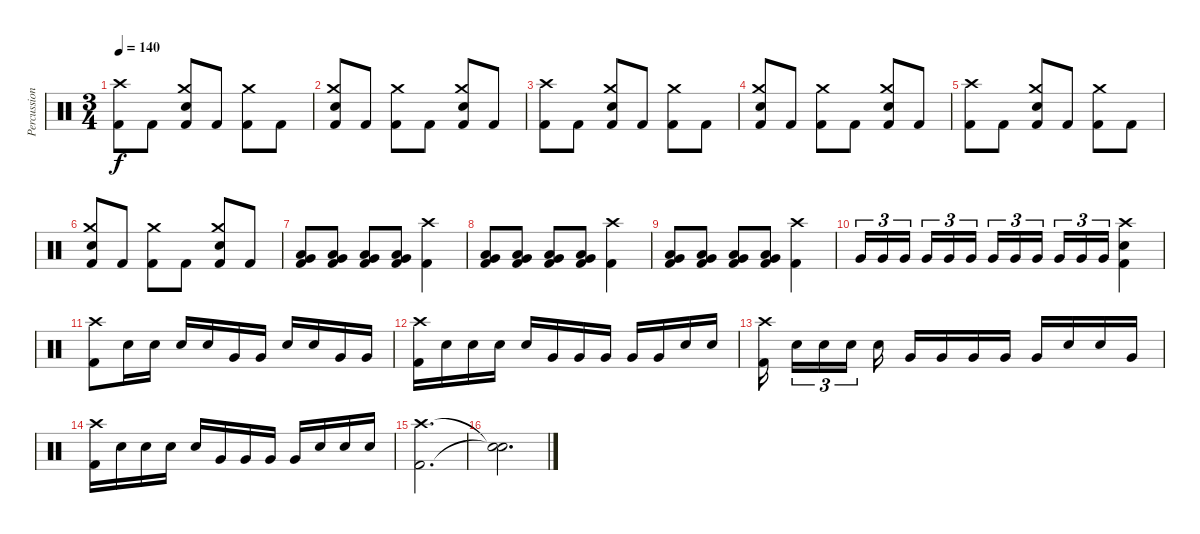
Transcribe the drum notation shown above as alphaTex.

\track ("Percussions" "Percussion") {instrument percussion}
\staff {score}
\articulation defaults
\ts (3 4)
\tempo 140
\clef neutral
\ks c
("Crash high (hit)" "Kick (hit) 2").8{dy f} "Kick (hit) 2".8 ("Crash medium (hit)" "Electric Snare (hit)" "Kick (hit) 2").8 "Kick (hit) 2".8 ("Crash medium (hit)" "Kick (hit) 2").8 "Kick (hit) 2".8 |
("Crash medium (hit)" "Electric Snare (hit)" "Kick (hit) 2").8 "Kick (hit) 2".8 ("Crash medium (hit)" "Kick (hit) 2").8 "Kick (hit) 2".8 ("Crash medium (hit)" "Electric Snare (hit)" "Kick (hit) 2").8 "Kick (hit) 2".8 |
("Crash high (hit)" "Kick (hit) 2").8 "Kick (hit) 2".8 ("Crash medium (hit)" "Electric Snare (hit)" "Kick (hit) 2").8 "Kick (hit) 2".8 ("Crash medium (hit)" "Kick (hit) 2").8 "Kick (hit) 2".8 |
("Crash medium (hit)" "Electric Snare (hit)" "Kick (hit) 2").8 "Kick (hit) 2".8 ("Crash medium (hit)" "Kick (hit) 2").8 "Kick (hit) 2".8 ("Crash medium (hit)" "Electric Snare (hit)" "Kick (hit) 2").8 "Kick (hit) 2".8 |
("Crash high (hit)" "Kick (hit) 2").8 "Kick (hit) 2".8 ("Crash medium (hit)" "Electric Snare (hit)" "Kick (hit) 2").8 "Kick (hit) 2".8 ("Crash medium (hit)" "Kick (hit) 2").8 "Kick (hit) 2".8 |
("Crash medium (hit)" "Electric Snare (hit)" "Kick (hit) 2").8 "Kick (hit) 2".8 ("Crash medium (hit)" "Kick (hit) 2").8 "Kick (hit) 2".8 ("Crash medium (hit)" "Electric Snare (hit)" "Kick (hit) 2").8 "Kick (hit) 2".8 |
("Very Low Tom (hit)" "Low Floor Tom (hit)" "Kick (hit) 2").8 ("Very Low Tom (hit)" "Low Floor Tom (hit)" "Kick (hit) 2").8 ("Very Low Tom (hit)" "Low Floor Tom (hit)" "Kick (hit) 2").8 ("Very Low Tom (hit)" "Low Floor Tom (hit)" "Kick (hit) 2").8 ("Crash high (hit)" "Kick (hit) 2").4 |
("Very Low Tom (hit)" "Low Floor Tom (hit)" "Kick (hit) 2").8 ("Very Low Tom (hit)" "Low Floor Tom (hit)" "Kick (hit) 2").8 ("Very Low Tom (hit)" "Low Floor Tom (hit)" "Kick (hit) 2").8 ("Very Low Tom (hit)" "Low Floor Tom (hit)" "Kick (hit) 2").8 ("Crash high (hit)" "Kick (hit) 2").4 |
("Very Low Tom (hit)" "Low Floor Tom (hit)" "Kick (hit) 2").8 ("Very Low Tom (hit)" "Low Floor Tom (hit)" "Kick (hit) 2").8 ("Very Low Tom (hit)" "Low Floor Tom (hit)" "Kick (hit) 2").8 ("Very Low Tom (hit)" "Low Floor Tom (hit)" "Kick (hit) 2").8 ("Crash high (hit)" "Kick (hit) 2").4 |
"Very Low Tom (hit)".16{tu (3 2)} "Very Low Tom (hit)".16{tu (3 2)} "Very Low Tom (hit)".16{tu (3 2)} "Very Low Tom (hit)".16{tu (3 2)} "Very Low Tom (hit)".16{tu (3 2)} "Very Low Tom (hit)".16{tu (3 2)} "Very Low Tom (hit)".16{tu (3 2)} "Very Low Tom (hit)".16{tu (3 2)} "Very Low Tom (hit)".16{tu (3 2)} "Very Low Tom (hit)".16{tu (3 2)} "Very Low Tom (hit)".16{tu (3 2)} "Very Low Tom (hit)".16{tu (3 2)} ("Crash high (hit)" "Electric Snare (hit)" "Kick (hit) 2").4 |
("Crash high (hit)" "Kick (hit) 2").8 "Electric Snare (hit)".16 "Electric Snare (hit)".16 "Electric Snare (hit)".16 "Electric Snare (hit)".16 "Very Low Tom (hit)".16 "Very Low Tom (hit)".16 "Electric Snare (hit)".16 "Electric Snare (hit)".16 "Very Low Tom (hit)".16 "Very Low Tom (hit)".16 |
("Crash high (hit)" "Kick (hit) 2").16 "Electric Snare (hit)".16 "Electric Snare (hit)".16 "Electric Snare (hit)".16 "Electric Snare (hit)".16 "Very Low Tom (hit)".16 "Very Low Tom (hit)".16 "Very Low Tom (hit)".16 "Very Low Tom (hit)".16 "Very Low Tom (hit)".16 "Electric Snare (hit)".16 "Electric Snare (hit)".16 |
("Crash high (hit)" "Kick (hit) 2").16 "Electric Snare (hit)".16{tu (3 2)} "Electric Snare (hit)".16{tu (3 2)} "Electric Snare (hit)".16{tu (3 2)} "Electric Snare (hit)".16 "Very Low Tom (hit)".16 "Very Low Tom (hit)".16 "Very Low Tom (hit)".16 "Very Low Tom (hit)".16 "Very Low Tom (hit)".16 "Electric Snare (hit)".16 "Electric Snare (hit)".16 "Very Low Tom (hit)".16 |
("Crash high (hit)" "Kick (hit) 2").16 "Electric Snare (hit)".16 "Electric Snare (hit)".16 "Electric Snare (hit)".16 "Electric Snare (hit)".16 "Very Low Tom (hit)".16 "Very Low Tom (hit)".16 "Very Low Tom (hit)".16 "Very Low Tom (hit)".16 "Electric Snare (hit)".16 "Electric Snare (hit)".16 "Electric Snare (hit)".16 |
("Crash high (hit)" "Kick (hit) 2").2{d} |
("Snare (hit)"{t} "Snare (hit)"{t}).2{d}
